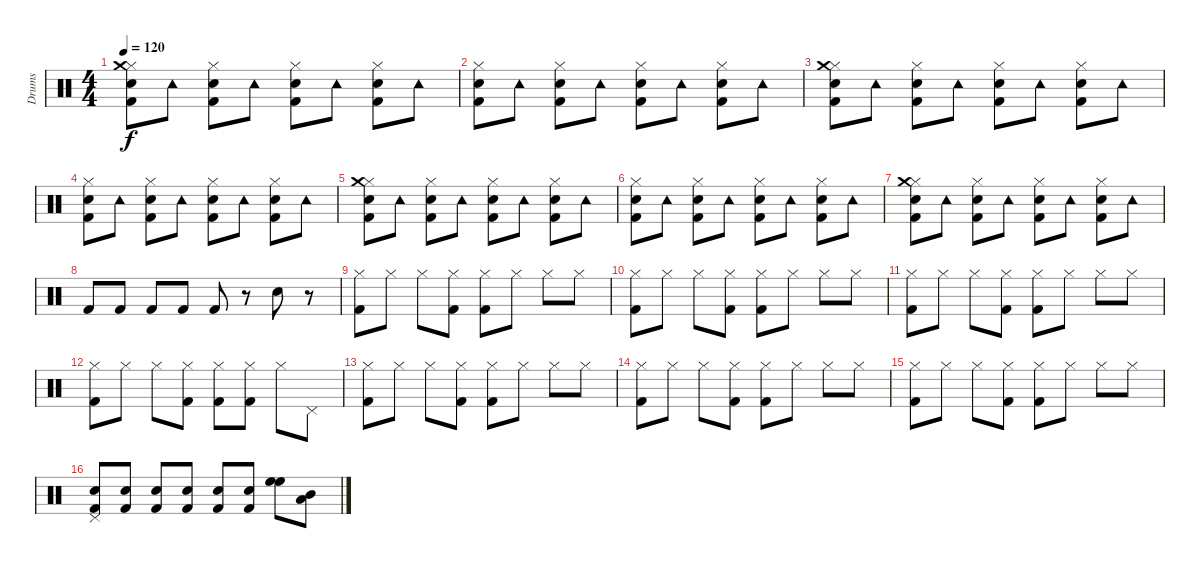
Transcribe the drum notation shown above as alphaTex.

\track ("Drums" "Drums") {instrument percussion}
\staff {score}
\articulation defaults
\ts (4 4)
\tempo 120
\clef neutral
\ks c
("Hi-Hat (closed)" "Snare (hit) 2" "Kick (hit) 2" "Crash medium (hit)").8{dy f} "Tambourine (hit)".8 ("Hi-Hat (closed)" "Snare (hit) 2" "Kick (hit) 2").8 "Tambourine (hit)".8 ("Hi-Hat (closed)" "Snare (hit) 2" "Kick (hit) 2").8 "Tambourine (hit)".8 ("Hi-Hat (closed)" "Snare (hit) 2" "Kick (hit) 2").8 "Tambourine (hit)".8 |
("Snare (hit) 2" "Hi-Hat (closed)" "Kick (hit) 2").8 "Tambourine (hit)".8 ("Snare (hit) 2" "Hi-Hat (closed)" "Kick (hit) 2").8 "Tambourine (hit)".8 ("Snare (hit) 2" "Hi-Hat (closed)" "Kick (hit) 2").8 "Tambourine (hit)".8 ("Hi-Hat (closed)" "Snare (hit) 2" "Kick (hit) 2").8 "Tambourine (hit)".8 |
("Hi-Hat (closed)" "Snare (hit) 2" "Kick (hit) 2" "Crash medium (hit)").8 "Tambourine (hit)".8 ("Hi-Hat (closed)" "Snare (hit) 2" "Kick (hit) 2").8 "Tambourine (hit)".8 ("Hi-Hat (closed)" "Snare (hit) 2" "Kick (hit) 2").8 "Tambourine (hit)".8 ("Hi-Hat (closed)" "Snare (hit) 2" "Kick (hit) 2").8 "Tambourine (hit)".8 |
("Snare (hit) 2" "Hi-Hat (closed)" "Kick (hit) 2").8 "Tambourine (hit)".8 ("Snare (hit) 2" "Hi-Hat (closed)" "Kick (hit) 2").8 "Tambourine (hit)".8 ("Snare (hit) 2" "Hi-Hat (closed)" "Kick (hit) 2").8 "Tambourine (hit)".8 ("Hi-Hat (closed)" "Snare (hit) 2" "Kick (hit) 2").8 "Tambourine (hit)".8 |
("Hi-Hat (closed)" "Snare (hit) 2" "Kick (hit) 2" "Crash medium (hit)").8 "Tambourine (hit)".8 ("Hi-Hat (closed)" "Snare (hit) 2" "Kick (hit) 2").8 "Tambourine (hit)".8 ("Hi-Hat (closed)" "Snare (hit) 2" "Kick (hit) 2").8 "Tambourine (hit)".8 ("Hi-Hat (closed)" "Snare (hit) 2" "Kick (hit) 2").8 "Tambourine (hit)".8 |
("Snare (hit) 2" "Hi-Hat (closed)" "Kick (hit) 2").8 "Tambourine (hit)".8 ("Snare (hit) 2" "Hi-Hat (closed)" "Kick (hit) 2").8 "Tambourine (hit)".8 ("Snare (hit) 2" "Hi-Hat (closed)" "Kick (hit) 2").8 "Tambourine (hit)".8 ("Hi-Hat (closed)" "Snare (hit) 2" "Kick (hit) 2").8 "Tambourine (hit)".8 |
("Hi-Hat (closed)" "Snare (hit) 2" "Kick (hit) 2" "Crash medium (hit)").8 "Tambourine (hit)".8 ("Hi-Hat (closed)" "Snare (hit) 2" "Kick (hit) 2").8 "Tambourine (hit)".8 ("Hi-Hat (closed)" "Snare (hit) 2" "Kick (hit) 2").8 "Tambourine (hit)".8 ("Hi-Hat (closed)" "Snare (hit) 2" "Kick (hit) 2").8 "Tambourine (hit)".8 |
"Kick (hit) 2".8 "Kick (hit) 2".8 "Kick (hit) 2".8 "Kick (hit) 2".8 "Kick (hit) 2".8 r.8 "Snare (hit) 2".8 r.8 |
("Hi-Hat (closed)" "Kick (hit) 2").8 "Hi-Hat (closed)".8 "Hi-Hat (closed)".8 ("Hi-Hat (closed)" "Kick (hit) 2").8 ("Hi-Hat (closed)" "Kick (hit) 2").8 "Hi-Hat (closed)".8 "Hi-Hat (closed)".8 "Hi-Hat (closed)".8 |
("Hi-Hat (closed)" "Kick (hit) 2").8 "Hi-Hat (closed)".8 "Hi-Hat (closed)".8 ("Hi-Hat (closed)" "Kick (hit) 2").8 ("Hi-Hat (closed)" "Kick (hit) 2").8 "Hi-Hat (closed)".8 "Hi-Hat (closed)".8 "Hi-Hat (closed)".8 |
("Hi-Hat (closed)" "Kick (hit) 2").8 "Hi-Hat (closed)".8 "Hi-Hat (closed)".8 ("Hi-Hat (closed)" "Kick (hit) 2").8 ("Hi-Hat (closed)" "Kick (hit) 2").8 "Hi-Hat (closed)".8 "Hi-Hat (closed)".8 "Hi-Hat (closed)".8 |
("Hi-Hat (closed)" "Kick (hit) 2").8 "Hi-Hat (closed)".8 "Hi-Hat (closed)".8 ("Hi-Hat (closed)" "Kick (hit) 2").8 ("Hi-Hat (closed)" "Kick (hit) 2").8 ("Hi-Hat (closed)" "Kick (hit) 2").8 "Hi-Hat (closed)".8 "Pedal Hi-Hat (hit)".8 |
("Hi-Hat (closed)" "Kick (hit) 2").8 "Hi-Hat (closed)".8 "Hi-Hat (closed)".8 ("Hi-Hat (closed)" "Kick (hit) 2").8 ("Hi-Hat (closed)" "Kick (hit) 2").8 "Hi-Hat (closed)".8 "Hi-Hat (closed)".8 "Hi-Hat (closed)".8 |
("Hi-Hat (closed)" "Kick (hit) 2").8 "Hi-Hat (closed)".8 "Hi-Hat (closed)".8 ("Hi-Hat (closed)" "Kick (hit) 2").8 ("Hi-Hat (closed)" "Kick (hit) 2").8 "Hi-Hat (closed)".8 "Hi-Hat (closed)".8 "Hi-Hat (closed)".8 |
("Hi-Hat (closed)" "Kick (hit) 2").8 "Hi-Hat (closed)".8 "Hi-Hat (closed)".8 ("Hi-Hat (closed)" "Kick (hit) 2").8 ("Hi-Hat (closed)" "Kick (hit) 2").8 "Hi-Hat (closed)".8 "Hi-Hat (closed)".8 "Hi-Hat (closed)".8 |
("Pedal Hi-Hat (hit)" "Snare (hit) 2" "Kick (hit) 2").8 ("Snare (hit) 2" "Kick (hit) 2").8 ("Snare (hit) 2" "Kick (hit) 2").8 ("Snare (hit) 2" "Kick (hit) 2").8 ("Snare (hit) 2" "Kick (hit) 2").8 ("Snare (hit) 2" "Kick (hit) 2").8 ("High Floor Tom (hit)" "High Floor Tom (hit)").8 ("Mid Tom (hit)" "Low Tom (hit)").8
